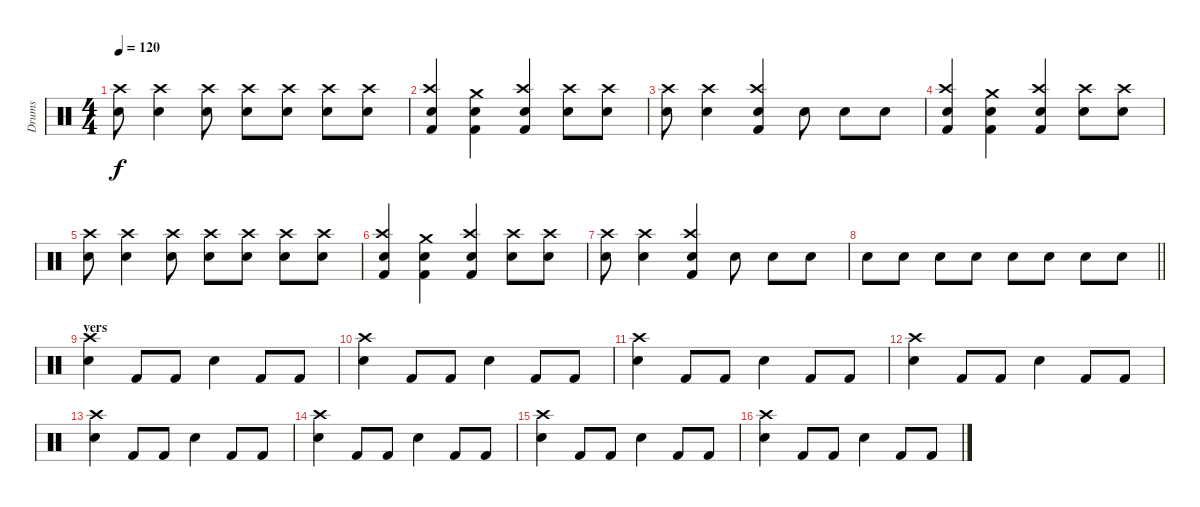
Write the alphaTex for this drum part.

\track ("Drums" "Drums") {instrument percussion}
\staff {score}
\articulation defaults
\ts (4 4)
\tempo 120
\clef neutral
\ks c
("Electric Snare (hit)" "Crash high (hit)").8{dy f} ("Electric Snare (hit)" "Crash high (hit)").4 ("Electric Snare (hit)" "Crash high (hit)").8 ("Electric Snare (hit)" "Crash high (hit)").8 ("Electric Snare (hit)" "Crash high (hit)").8 ("Electric Snare (hit)" "Crash high (hit)").8 ("Electric Snare (hit)" "Crash high (hit)").8 |
("Electric Snare (hit)" "Kick (hit) 2" "Crash high (hit)").4 ("Electric Snare (hit)" "Kick (hit) 2" "Crash medium (hit)").4 ("Electric Snare (hit)" "Kick (hit) 2" "Crash high (hit)").4 ("Electric Snare (hit)" "Crash high (hit)").8 ("Electric Snare (hit)" "Crash high (hit)").8 |
("Electric Snare (hit)" "Crash high (hit)").8 ("Electric Snare (hit)" "Crash high (hit)").4 ("Electric Snare (hit)" "Kick (hit) 2" "Crash high (hit)").4 "Electric Snare (hit)".8 "Electric Snare (hit)".8 "Electric Snare (hit)".8 |
("Electric Snare (hit)" "Kick (hit) 2" "Crash high (hit)").4 ("Electric Snare (hit)" "Kick (hit) 2" "Crash medium (hit)").4 ("Electric Snare (hit)" "Kick (hit) 2" "Crash high (hit)").4 ("Electric Snare (hit)" "Crash high (hit)").8 ("Electric Snare (hit)" "Crash high (hit)").8 |
("Electric Snare (hit)" "Crash high (hit)").8 ("Electric Snare (hit)" "Crash high (hit)").4 ("Electric Snare (hit)" "Crash high (hit)").8 ("Electric Snare (hit)" "Crash high (hit)").8 ("Electric Snare (hit)" "Crash high (hit)").8 ("Electric Snare (hit)" "Crash high (hit)").8 ("Electric Snare (hit)" "Crash high (hit)").8 |
("Electric Snare (hit)" "Kick (hit) 2" "Crash high (hit)").4 ("Electric Snare (hit)" "Kick (hit) 2" "Crash medium (hit)").4 ("Electric Snare (hit)" "Kick (hit) 2" "Crash high (hit)").4 ("Electric Snare (hit)" "Crash high (hit)").8 ("Electric Snare (hit)" "Crash high (hit)").8 |
("Electric Snare (hit)" "Crash high (hit)").8 ("Electric Snare (hit)" "Crash high (hit)").4 ("Electric Snare (hit)" "Kick (hit) 2" "Crash high (hit)").4 "Electric Snare (hit)".8 "Electric Snare (hit)".8 "Electric Snare (hit)".8 |
\barLineRight lightlight "Electric Snare (hit)".8 "Electric Snare (hit)".8 "Electric Snare (hit)".8 "Electric Snare (hit)".8 "Electric Snare (hit)".8 "Electric Snare (hit)".8 "Electric Snare (hit)".8 "Electric Snare (hit)".8
|
\section ("" "vers")
("Electric Snare (hit)" "Crash high (hit)").4 "Kick (hit) 2".8 "Kick (hit) 2".8 "Electric Snare (hit)".4 "Kick (hit) 2".8 "Kick (hit) 2".8 |
("Electric Snare (hit)" "Crash high (hit)").4 "Kick (hit) 2".8 "Kick (hit) 2".8 "Electric Snare (hit)".4 "Kick (hit) 2".8 "Kick (hit) 2".8 |
("Electric Snare (hit)" "Crash high (hit)").4 "Kick (hit) 2".8 "Kick (hit) 2".8 "Electric Snare (hit)".4 "Kick (hit) 2".8 "Kick (hit) 2".8 |
("Electric Snare (hit)" "Crash high (hit)").4 "Kick (hit) 2".8 "Kick (hit) 2".8 "Electric Snare (hit)".4 "Kick (hit) 2".8 "Kick (hit) 2".8 |
("Electric Snare (hit)" "Crash high (hit)").4 "Kick (hit) 2".8 "Kick (hit) 2".8 "Electric Snare (hit)".4 "Kick (hit) 2".8 "Kick (hit) 2".8 |
("Electric Snare (hit)" "Crash high (hit)").4 "Kick (hit) 2".8 "Kick (hit) 2".8 "Electric Snare (hit)".4 "Kick (hit) 2".8 "Kick (hit) 2".8 |
("Electric Snare (hit)" "Crash high (hit)").4 "Kick (hit) 2".8 "Kick (hit) 2".8 "Electric Snare (hit)".4 "Kick (hit) 2".8 "Kick (hit) 2".8 |
("Electric Snare (hit)" "Crash high (hit)").4 "Kick (hit) 2".8 "Kick (hit) 2".8 "Electric Snare (hit)".4 "Kick (hit) 2".8 "Kick (hit) 2".8
